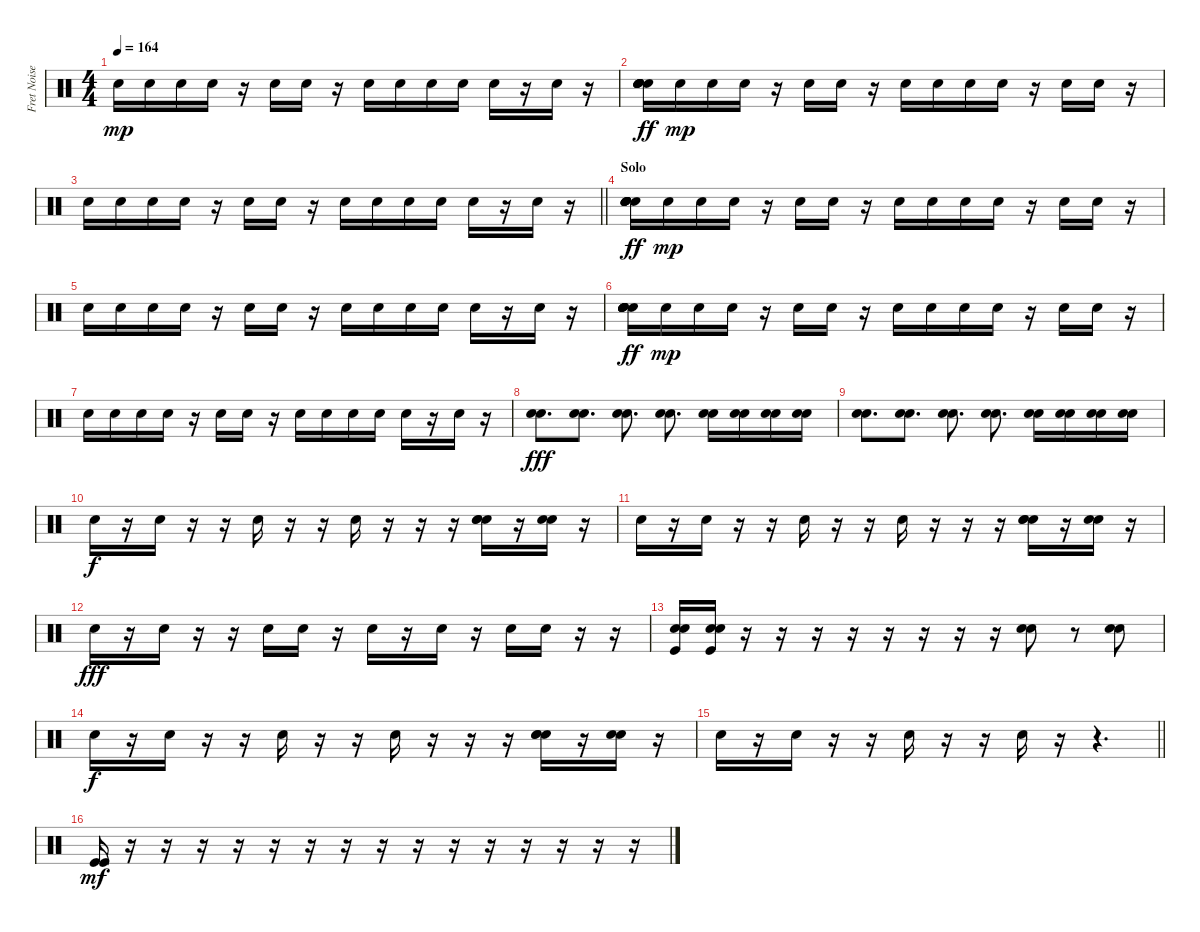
\track ("Fret Noise / Percussion(corpus)" "Fret Noise") {instrument percussion}
\staff {score}
\articulation defaults
\ts (4 4)
\tempo 164
\clef neutral
\ks c "Snare (hit) 2".16{dy mp} "Snare (hit) 2".16 "Snare (hit) 2".16 "Snare (hit) 2".16
r.16 "Snare (hit) 2".16 "Snare (hit) 2".16 r.16 "Snare (hit) 2".16 "Snare (hit) 2".16 "Snare (hit) 2".16 "Snare (hit) 2".16 "Snare (hit) 2".16 r.16 "Snare (hit) 2".16 r.16 |
("Snare (hit) 2" "Snare (hit) 2" "Snare (hit) 2" "Snare (hit) 2" "Snare (hit) 2" "Snare (hit) 2").16{dy ff} "Snare (hit) 2".16{dy mp} "Snare (hit) 2".16 "Snare (hit) 2".16 r.16 "Snare (hit) 2".16 "Snare (hit) 2".16 r.16 "Snare (hit) 2".16 "Snare (hit) 2".16 "Snare (hit) 2".16 "Snare (hit) 2".16 r.16 "Snare (hit) 2".16 "Snare (hit) 2".16 r.16 |
\barLineRight lightlight "Snare (hit) 2".16 "Snare (hit) 2".16 "Snare (hit) 2".16 "Snare (hit) 2".16
r.16 "Snare (hit) 2".16 "Snare (hit) 2".16 r.16 "Snare (hit) 2".16 "Snare (hit) 2".16 "Snare (hit) 2".16 "Snare (hit) 2".16 "Snare (hit) 2".16 r.16 "Snare (hit) 2".16 r.16 |
\section ("" "Solo")
("Snare (hit) 2" "Snare (hit) 2" "Snare (hit) 2" "Snare (hit) 2" "Snare (hit) 2" "Snare (hit) 2").16{dy ff} "Snare (hit) 2".16{dy mp} "Snare (hit) 2".16 "Snare (hit) 2".16 r.16 "Snare (hit) 2".16 "Snare (hit) 2".16 r.16 "Snare (hit) 2".16 "Snare (hit) 2".16 "Snare (hit) 2".16 "Snare (hit) 2".16 r.16 "Snare (hit) 2".16 "Snare (hit) 2".16 r.16 |
"Snare (hit) 2".16 "Snare (hit) 2".16 "Snare (hit) 2".16 "Snare (hit) 2".16 r.16 "Snare (hit) 2".16 "Snare (hit) 2".16 r.16 "Snare (hit) 2".16 "Snare (hit) 2".16 "Snare (hit) 2".16 "Snare (hit) 2".16 "Snare (hit) 2".16 r.16 "Snare (hit) 2".16 r.16 |
("Snare (hit) 2" "Snare (hit) 2" "Snare (hit) 2" "Snare (hit) 2" "Snare (hit) 2" "Snare (hit) 2").16{dy ff} "Snare (hit) 2".16{dy mp} "Snare (hit) 2".16 "Snare (hit) 2".16 r.16 "Snare (hit) 2".16 "Snare (hit) 2".16 r.16 "Snare (hit) 2".16 "Snare (hit) 2".16 "Snare (hit) 2".16 "Snare (hit) 2".16 r.16 "Snare (hit) 2".16 "Snare (hit) 2".16 r.16 |
"Snare (hit) 2".16 "Snare (hit) 2".16 "Snare (hit) 2".16 "Snare (hit) 2".16 r.16 "Snare (hit) 2".16 "Snare (hit) 2".16 r.16 "Snare (hit) 2".16 "Snare (hit) 2".16 "Snare (hit) 2".16 "Snare (hit) 2".16 "Snare (hit) 2".16 r.16 "Snare (hit) 2".16 r.16 |
("Snare (hit) 2" "Snare (hit) 2").8{d dy fff} ("Snare (hit) 2" "Snare (hit) 2").8{d} ("Snare (hit) 2" "Snare (hit) 2").8{d} ("Snare (hit) 2" "Snare (hit) 2").8{d} ("Snare (hit) 2" "Snare (hit) 2").16 ("Snare (hit) 2" "Snare (hit) 2").16 ("Snare (hit) 2" "Snare (hit) 2").16 ("Snare (hit) 2" "Snare (hit) 2").16 |
("Snare (hit) 2" "Snare (hit) 2").8{d} ("Snare (hit) 2" "Snare (hit) 2").8{d} ("Snare (hit) 2" "Snare (hit) 2").8{d} ("Snare (hit) 2" "Snare (hit) 2").8{d} ("Snare (hit) 2" "Snare (hit) 2").16 ("Snare (hit) 2" "Snare (hit) 2").16 ("Snare (hit) 2" "Snare (hit) 2").16 ("Snare (hit) 2" "Snare (hit) 2").16 |
"Snare (hit) 2".16{dy f} r.16 "Snare (hit) 2".16 r.16 r.16 "Snare (hit) 2".16 r.16 r.16 "Snare (hit) 2".16 r.16 r.16 r.16 ("Snare (hit) 2" "Snare (hit) 2" "Snare (hit) 2").16 r.16 ("Snare (hit) 2" "Snare (hit) 2").16 r.16 |
"Snare (hit) 2".16 r.16 "Snare (hit) 2".16 r.16 r.16 "Snare (hit) 2".16 r.16 r.16 "Snare (hit) 2".16 r.16 r.16 r.16 ("Snare (hit) 2" "Snare (hit) 2" "Snare (hit) 2").16 r.16 ("Snare (hit) 2" "Snare (hit) 2").16 r.16 |
"Snare (hit) 2".16{dy fff} r.16 "Snare (hit) 2".16 r.16 r.16 "Snare (hit) 2".16 "Snare (hit) 2".16 r.16 "Snare (hit) 2".16 r.16 "Snare (hit) 2".16 r.16 "Snare (hit) 2".16 "Snare (hit) 2".16 r.16 r.16 |
("Snare (hit) 2" "Snare (hit) 2" "Kick (hit)").16 ("Snare (hit) 2" "Snare (hit) 2" "Kick (hit)").16 r.16 r.16 r.16 r.16 r.16 r.16 r.16 r.16 ("Snare (hit) 2" "Snare (hit) 2").8 r.8 ("Snare (hit) 2" "Snare (hit) 2").8 |
"Snare (hit) 2".16{dy f} r.16 "Snare (hit) 2".16 r.16 r.16 "Snare (hit) 2".16 r.16 r.16 "Snare (hit) 2".16 r.16 r.16 r.16 ("Snare (hit) 2" "Snare (hit) 2" "Snare (hit) 2").16 r.16 ("Snare (hit) 2" "Snare (hit) 2").16 r.16 |
\barLineRight lightlight "Snare (hit) 2".16
r.16 "Snare (hit) 2".16 r.16 r.16 "Snare (hit) 2".16 r.16 r.16 "Snare (hit) 2".16 r.16 r.4{d} |
("Kick (hit)" "Kick (hit)").16{dy mf} r.16 r.16 r.16 r.16 r.16 r.16 r.16 r.16 r.16 r.16 r.16 r.16 r.16 r.16 r.16
